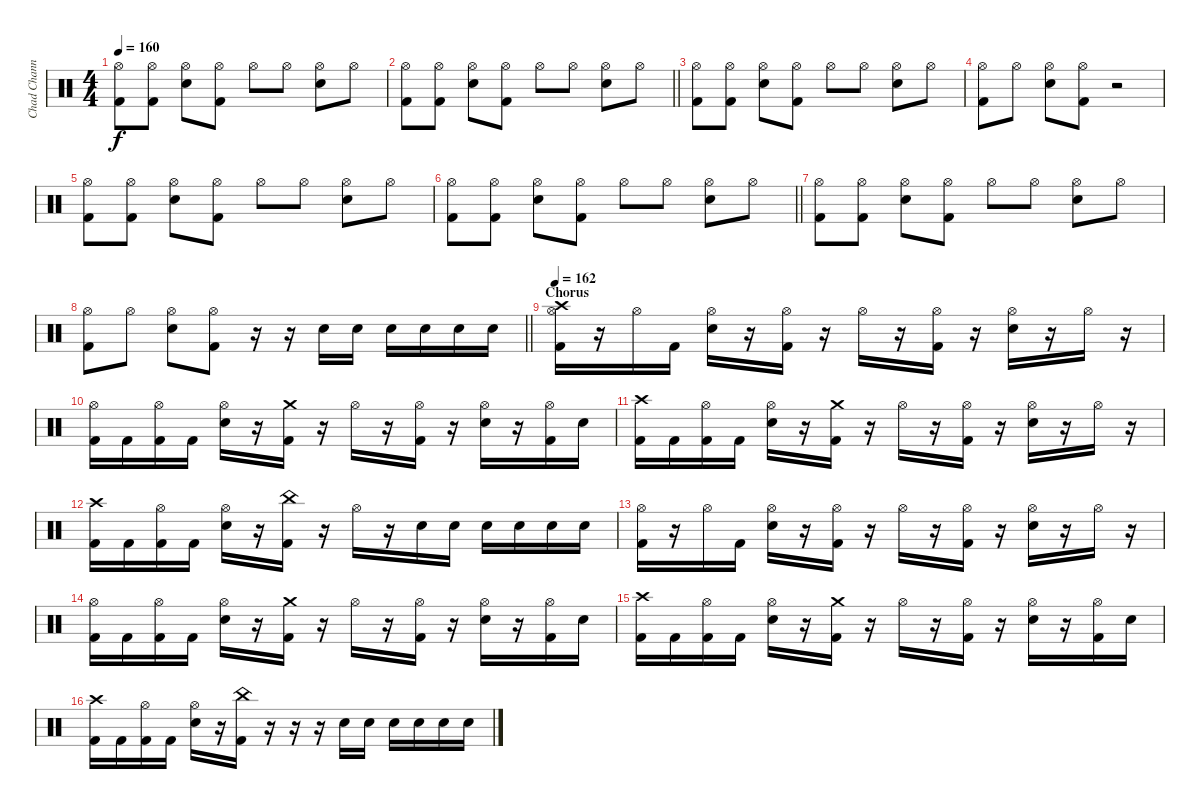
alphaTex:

\track ("Chad Channing" "Chad Chann") {instrument percussion}
\staff {score}
\articulation defaults
\ts (4 4)
\tempo 160
\clef neutral
\ks c
("Hi-Hat (open)" "Kick (hit) 2").8{dy f} ("Hi-Hat (open)" "Kick (hit) 2").8 ("Hi-Hat (open)" "Snare (hit) 2").8 ("Hi-Hat (open)" "Kick (hit) 2").8 "Hi-Hat (open)".8 "Hi-Hat (open)".8 ("Hi-Hat (open)" "Snare (hit) 2").8 "Hi-Hat (open)".8 |
\barLineRight lightlight
("Hi-Hat (open)" "Kick (hit) 2").8 ("Hi-Hat (open)" "Kick (hit) 2").8 ("Hi-Hat (open)" "Snare (hit) 2").8 ("Hi-Hat (open)" "Kick (hit) 2").8 "Hi-Hat (open)".8 "Hi-Hat (open)".8 ("Hi-Hat (open)" "Snare (hit) 2").8 "Hi-Hat (open)".8 |
("Hi-Hat (open)" "Kick (hit) 2").8 ("Hi-Hat (open)" "Kick (hit) 2").8 ("Hi-Hat (open)" "Snare (hit) 2").8 ("Hi-Hat (open)" "Kick (hit) 2").8 "Hi-Hat (open)".8 "Hi-Hat (open)".8 ("Hi-Hat (open)" "Snare (hit) 2").8 "Hi-Hat (open)".8 |
("Hi-Hat (open)" "Kick (hit) 2").8 "Hi-Hat (open)".8 ("Hi-Hat (open)" "Snare (hit) 2").8 ("Hi-Hat (open)" "Kick (hit) 2").8 r.2 |
("Hi-Hat (open)" "Kick (hit) 2").8 ("Hi-Hat (open)" "Kick (hit) 2").8 ("Hi-Hat (open)" "Snare (hit) 2").8 ("Hi-Hat (open)" "Kick (hit) 2").8 "Hi-Hat (open)".8 "Hi-Hat (open)".8 ("Hi-Hat (open)" "Snare (hit) 2").8 "Hi-Hat (open)".8 |
\barLineRight lightlight
("Hi-Hat (open)" "Kick (hit) 2").8 ("Hi-Hat (open)" "Kick (hit) 2").8 ("Hi-Hat (open)" "Snare (hit) 2").8 ("Hi-Hat (open)" "Kick (hit) 2").8 "Hi-Hat (open)".8 "Hi-Hat (open)".8 ("Hi-Hat (open)" "Snare (hit) 2").8 "Hi-Hat (open)".8 |
("Hi-Hat (open)" "Kick (hit) 2").8 ("Hi-Hat (open)" "Kick (hit) 2").8 ("Hi-Hat (open)" "Snare (hit) 2").8 ("Hi-Hat (open)" "Kick (hit) 2").8 "Hi-Hat (open)".8 "Hi-Hat (open)".8 ("Hi-Hat (open)" "Snare (hit) 2").8 "Hi-Hat (open)".8 |
\barLineRight lightlight
("Hi-Hat (open)" "Kick (hit) 2").8 "Hi-Hat (open)".8 ("Hi-Hat (open)" "Snare (hit) 2").8 ("Hi-Hat (open)" "Kick (hit) 2").8 r.16 r.16 "Snare (hit) 2".16 "Snare (hit) 2".16 "Snare (hit) 2".16 "Snare (hit) 2".16 "Snare (hit) 2".16 "Snare (hit) 2".16 |
\section ("" "Chorus")
\tempo 162
("Crash high (hit)" "Hi-Hat (open)" "Kick (hit) 2").16 r.16 "Hi-Hat (open)".16 "Kick (hit) 2".16 ("Hi-Hat (open)" "Snare (hit) 2").16 r.16 ("Hi-Hat (open)" "Kick (hit) 2").16 r.16 "Hi-Hat (open)".16 r.16 ("Hi-Hat (open)" "Kick (hit) 2").16 r.16 ("Hi-Hat (open)" "Snare (hit) 2").16 r.16 "Hi-Hat (open)".16 r.16 |
("Hi-Hat (open)" "Kick (hit) 2").16 "Kick (hit) 2".16 ("Hi-Hat (open)" "Kick (hit) 2").16 "Kick (hit) 2".16 ("Hi-Hat (open)" "Snare (hit) 2").16 r.16 ("Crash medium (hit)" "Kick (hit) 2").16 r.16 "Hi-Hat (open)".16 r.16 ("Hi-Hat (open)" "Kick (hit) 2").16 r.16 ("Hi-Hat (open)" "Snare (hit) 2").16 r.16 ("Hi-Hat (open)" "Kick (hit) 2").16 "Snare (hit) 2".16 |
("Crash high (hit)" "Kick (hit) 2").16 "Kick (hit) 2".16 ("Hi-Hat (open)" "Kick (hit) 2").16 "Kick (hit) 2".16 ("Hi-Hat (open)" "Snare (hit) 2").16 r.16 ("Crash medium (hit)" "Kick (hit) 2").16 r.16 "Hi-Hat (open)".16 r.16 ("Hi-Hat (open)" "Kick (hit) 2").16 r.16 ("Hi-Hat (open)" "Snare (hit) 2").16 r.16 "Hi-Hat (open)".16 r.16 |
("Crash high (hit)" "Kick (hit) 2").16 "Kick (hit) 2".16 ("Hi-Hat (open)" "Kick (hit) 2").16 "Kick (hit) 2".16 ("Hi-Hat (open)" "Snare (hit) 2").16 r.16 ("China (hit)" "Kick (hit) 2").16 r.16 "Hi-Hat (open)".16 r.16 "Snare (hit) 2".16 "Snare (hit) 2".16 "Snare (hit) 2".16 "Snare (hit) 2".16 "Snare (hit) 2".16 "Snare (hit) 2".16 |
("Hi-Hat (open)" "Kick (hit) 2").16 r.16 "Hi-Hat (open)".16 "Kick (hit) 2".16 ("Hi-Hat (open)" "Snare (hit) 2").16 r.16 ("Hi-Hat (open)" "Kick (hit) 2").16 r.16 "Hi-Hat (open)".16 r.16 ("Hi-Hat (open)" "Kick (hit) 2").16 r.16 ("Hi-Hat (open)" "Snare (hit) 2").16 r.16 "Hi-Hat (open)".16 r.16 |
("Hi-Hat (open)" "Kick (hit) 2").16 "Kick (hit) 2".16 ("Hi-Hat (open)" "Kick (hit) 2").16 "Kick (hit) 2".16 ("Hi-Hat (open)" "Snare (hit) 2").16 r.16 ("Crash medium (hit)" "Kick (hit) 2").16 r.16 "Hi-Hat (open)".16 r.16 ("Hi-Hat (open)" "Kick (hit) 2").16 r.16 ("Hi-Hat (open)" "Snare (hit) 2").16 r.16 ("Hi-Hat (open)" "Kick (hit) 2").16 "Snare (hit) 2".16 |
("Crash high (hit)" "Kick (hit) 2").16 "Kick (hit) 2".16 ("Hi-Hat (open)" "Kick (hit) 2").16 "Kick (hit) 2".16 ("Hi-Hat (open)" "Snare (hit) 2").16 r.16 ("Crash medium (hit)" "Kick (hit) 2").16 r.16 "Hi-Hat (open)".16 r.16 ("Hi-Hat (open)" "Kick (hit) 2").16 r.16 ("Hi-Hat (open)" "Snare (hit) 2").16 r.16 ("Hi-Hat (open)" "Kick (hit) 2").16 "Snare (hit) 2".16 |
("Crash high (hit)" "Kick (hit) 2").16 "Kick (hit) 2".16 ("Hi-Hat (open)" "Kick (hit) 2").16 "Kick (hit) 2".16 ("Hi-Hat (open)" "Snare (hit) 2").16 r.16 ("China (hit)" "Kick (hit) 2").16 r.16 r.16 r.16 "Snare (hit) 2".16 "Snare (hit) 2".16 "Snare (hit) 2".16 "Snare (hit) 2".16 "Snare (hit) 2".16 "Snare (hit) 2".16
